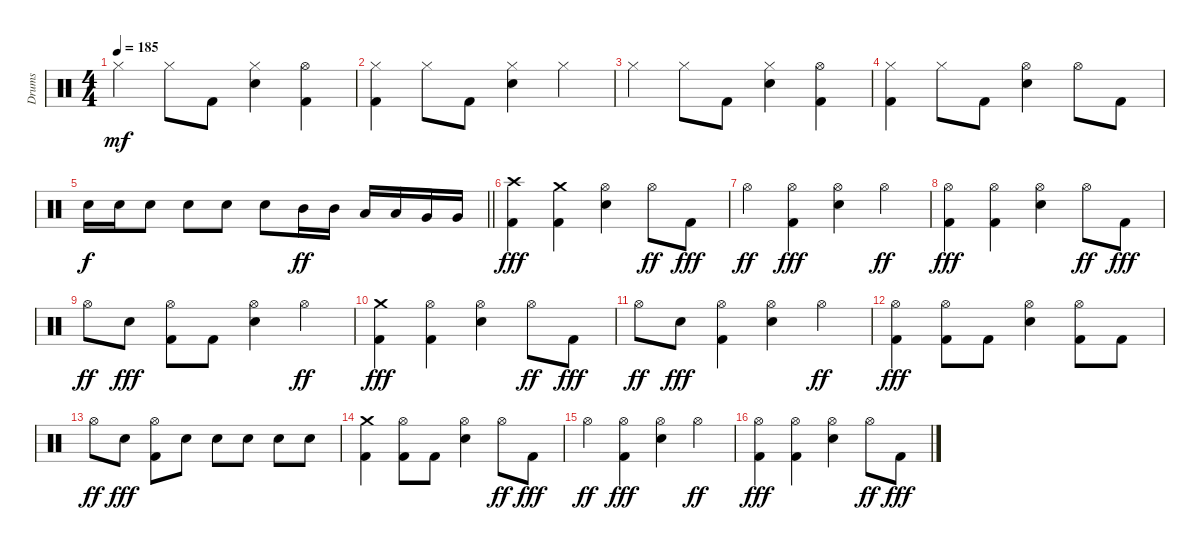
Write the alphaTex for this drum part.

\track ("Drums" "Drums") {instrument percussion}
\staff {score}
\articulation defaults
\ts (4 4)
\tempo 185
\clef neutral
\ks c "Hi-Hat (closed)".4{dy mf} "Hi-Hat (closed)".8 "Kick (hit) 2".8
("Hi-Hat (closed)" "Snare (hit) 2").4 ("Hi-Hat (open)" "Kick (hit) 2").4 |
("Hi-Hat (closed)" "Kick (hit) 2").4 "Hi-Hat (closed)".8 "Kick (hit) 2".8 ("Hi-Hat (closed)" "Snare (hit) 2").4 "Hi-Hat (closed)".4 |
"Hi-Hat (closed)".4 "Hi-Hat (closed)".8 "Kick (hit) 2".8 ("Hi-Hat (closed)" "Snare (hit) 2").4 ("Hi-Hat (open)" "Kick (hit) 2").4 |
("Hi-Hat (closed)" "Kick (hit) 2").4 "Hi-Hat (closed)".8 "Kick (hit) 2".8 ("Hi-Hat (open)" "Snare (hit) 2").4 "Hi-Hat (open)".8 "Kick (hit) 2".8 |
\barLineRight lightlight "Snare (hit) 2".16{dy f} "Snare (hit) 2".16 "Snare (hit) 2".8 "Snare (hit) 2".8 "Snare (hit) 2".8 "Snare (hit) 2".8 "Mid Tom (hit)".16{dy ff} "Mid Tom (hit)".16 "Low Tom (hit)".16 "Low Tom (hit)".16 "Very Low Tom (hit)".16 "Very Low Tom (hit)".16
|
\section ("" "")
("Crash high (hit)" "Kick (hit) 2").4{dy fff} ("Crash medium (hit)" "Kick (hit) 2").4 ("Hi-Hat (open)" "Snare (hit) 2").4 "Hi-Hat (open)".8{dy ff} "Kick (hit) 2".8{dy fff} |
"Hi-Hat (open)".4{dy ff} ("Hi-Hat (open)" "Kick (hit) 2").4{dy fff} ("Hi-Hat (open)" "Snare (hit) 2").4 "Hi-Hat (open)".4{dy ff} |
("Hi-Hat (open)" "Kick (hit) 2").4{dy fff} ("Hi-Hat (open)" "Kick (hit) 2").4 ("Hi-Hat (open)" "Snare (hit) 2").4 "Hi-Hat (open)".8{dy ff} "Kick (hit) 2".8{dy fff} |
"Hi-Hat (open)".8{dy ff} "Snare (hit) 2".8{dy fff} ("Hi-Hat (open)" "Kick (hit) 2").8 "Kick (hit) 2".8 ("Hi-Hat (open)" "Snare (hit) 2").4 "Hi-Hat (open)".4{dy ff} |
("Crash medium (hit)" "Kick (hit) 2").4{dy fff} ("Hi-Hat (open)" "Kick (hit) 2").4 ("Hi-Hat (open)" "Snare (hit) 2").4 "Hi-Hat (open)".8{dy ff} "Kick (hit) 2".8{dy fff} |
"Hi-Hat (open)".8{dy ff} "Snare (hit) 2".8{dy fff} ("Hi-Hat (open)" "Kick (hit) 2").4 ("Hi-Hat (open)" "Snare (hit) 2").4 "Hi-Hat (open)".4{dy ff} |
("Hi-Hat (open)" "Kick (hit) 2").4{dy fff} ("Hi-Hat (open)" "Kick (hit) 2").8 "Kick (hit) 2".8 ("Hi-Hat (open)" "Snare (hit) 2").4 ("Hi-Hat (open)" "Kick (hit) 2").8 "Kick (hit) 2".8 |
"Hi-Hat (open)".8{dy ff} "Snare (hit) 2".8{dy fff} ("Hi-Hat (open)" "Kick (hit) 2").8 "Snare (hit) 2".8 "Snare (hit) 2".8 "Snare (hit) 2".8 "Snare (hit) 2".8 "Snare (hit) 2".8 |
("Crash medium (hit)" "Kick (hit) 2").4 ("Hi-Hat (open)" "Kick (hit) 2").8 "Kick (hit) 2".8 ("Hi-Hat (open)" "Snare (hit) 2").4 "Hi-Hat (open)".8{dy ff} "Kick (hit) 2".8{dy fff} |
"Hi-Hat (open)".4{dy ff} ("Hi-Hat (open)" "Kick (hit) 2").4{dy fff} ("Hi-Hat (open)" "Snare (hit) 2").4 "Hi-Hat (open)".4{dy ff} |
("Hi-Hat (open)" "Kick (hit) 2").4{dy fff} ("Hi-Hat (open)" "Kick (hit) 2").4 ("Hi-Hat (open)" "Snare (hit) 2").4 "Hi-Hat (open)".8{dy ff} "Kick (hit) 2".8{dy fff}
